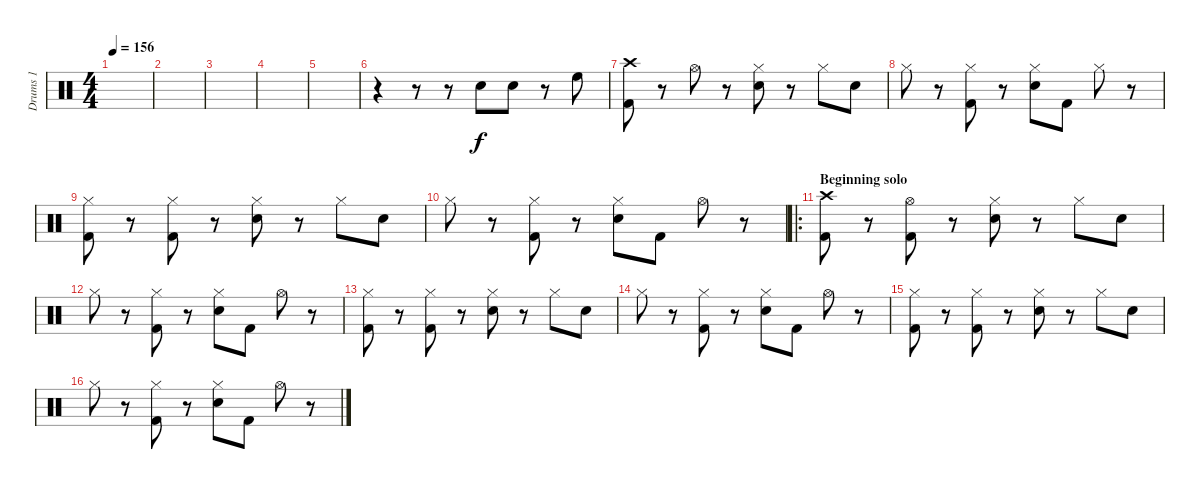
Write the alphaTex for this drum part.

\track ("Drums 1" "Drums 1") {instrument percussion}
\staff {score}
\articulation defaults
\ts (4 4)
\tempo 156
\clef neutral
\ks c
|
|
|
|
|
r.4 r.8 r.8 "Snare (hit) 2".8 "Snare (hit) 2".8 r.8 "High Floor Tom (hit)".8 |
("Crash high (hit)" "Kick (hit) 2").8 r.8 "Hi-Hat (open)".8 r.8 ("Hi-Hat (closed)" "Snare (hit) 2").8 r.8 "Hi-Hat (closed)".8 "Snare (hit) 2".8 |
"Hi-Hat (closed)".8 r.8 ("Hi-Hat (closed)" "Kick (hit) 2").8 r.8 ("Hi-Hat (closed)" "Snare (hit) 2").8 "Kick (hit) 2".8 "Hi-Hat (closed)".8 r.8 |
("Hi-Hat (closed)" "Kick (hit) 2").8 r.8 ("Hi-Hat (closed)" "Kick (hit) 2").8 r.8 ("Hi-Hat (closed)" "Snare (hit) 2").8 r.8 "Hi-Hat (closed)".8 "Snare (hit) 2".8 |
"Hi-Hat (closed)".8 r.8 ("Hi-Hat (closed)" "Kick (hit) 2").8 r.8 ("Hi-Hat (closed)" "Snare (hit) 2").8 "Kick (hit) 2".8 "Hi-Hat (open)".8 r.8 |
\ro
\section ("" "Beginning solo")
("Crash high (hit)" "Kick (hit) 2").8 r.8 ("Hi-Hat (open)" "Kick (hit) 2").8 r.8 ("Hi-Hat (closed)" "Snare (hit) 2").8 r.8 "Hi-Hat (closed)".8 "Snare (hit) 2".8 |
"Hi-Hat (closed)".8 r.8 ("Hi-Hat (closed)" "Kick (hit) 2").8 r.8 ("Hi-Hat (closed)" "Snare (hit) 2").8 "Kick (hit) 2".8 "Hi-Hat (open)".8 r.8 |
("Hi-Hat (closed)" "Kick (hit) 2").8 r.8 ("Hi-Hat (closed)" "Kick (hit) 2").8 r.8 ("Hi-Hat (closed)" "Snare (hit) 2").8 r.8 "Hi-Hat (closed)".8 "Snare (hit) 2".8 |
"Hi-Hat (closed)".8 r.8 ("Hi-Hat (closed)" "Kick (hit) 2").8 r.8 ("Hi-Hat (closed)" "Snare (hit) 2").8 "Kick (hit) 2".8 "Hi-Hat (open)".8 r.8 |
("Hi-Hat (closed)" "Kick (hit) 2").8 r.8 ("Hi-Hat (closed)" "Kick (hit) 2").8 r.8 ("Hi-Hat (closed)" "Snare (hit) 2").8 r.8 "Hi-Hat (closed)".8 "Snare (hit) 2".8 |
"Hi-Hat (closed)".8 r.8 ("Hi-Hat (closed)" "Kick (hit) 2").8 r.8 ("Hi-Hat (closed)" "Snare (hit) 2").8 "Kick (hit) 2".8 "Hi-Hat (open)".8 r.8
